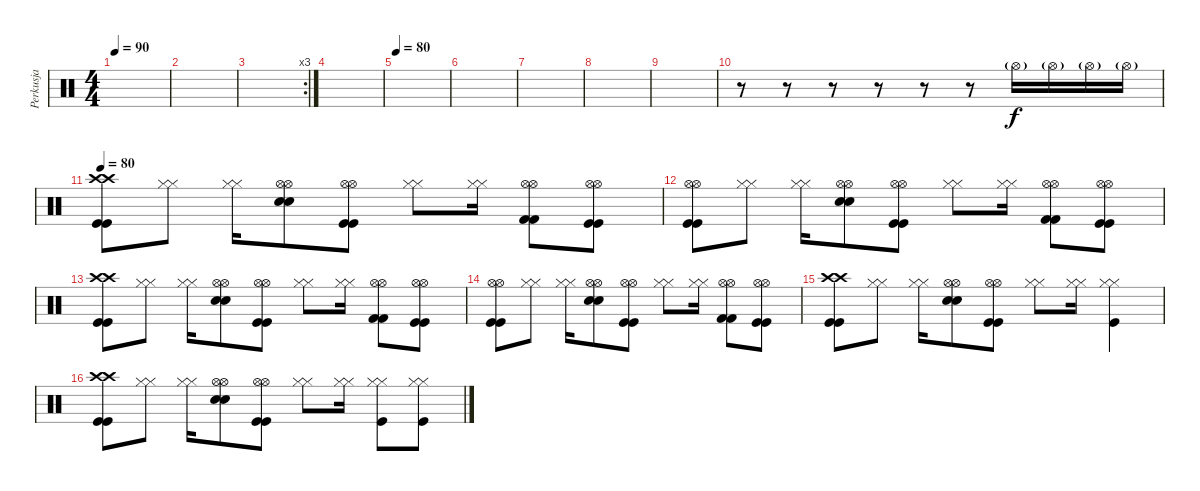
\track ("Perkusja" "Perkusja") {instrument percussion}
\staff {score}
\articulation defaults
\ts (4 4)
\tempo 90
\clef neutral
\ks c
|
|
\rc 3
|
|
\tempo 80
|
|
|
|
|
r.8 r.8 r.8 r.8 r.8 r.8 "Hi-Hat (open)"{g}.16 "Hi-Hat (open)"{g}.16 "Hi-Hat (open)"{g}.16 "Hi-Hat (open)"{g}.16 |
\tempo 80
("Crash high (hit)" "Crash high (hit)" "Kick (hit)" "Kick (hit)").8{dy f} ("Hi-Hat (closed)" "Hi-Hat (closed)").8 ("Hi-Hat (closed)" "Hi-Hat (closed)").16 ("Hi-Hat (open)" "Hi-Hat (open)" "Snare (hit) 2" "Snare (hit) 2").8 ("Hi-Hat (open)" "Hi-Hat (open)" "Kick (hit)" "Kick (hit)").8 ("Hi-Hat (closed)" "Hi-Hat (closed)").8 ("Hi-Hat (closed)" "Hi-Hat (closed)").16 ("Hi-Hat (open)" "Hi-Hat (open)" "Kick (hit) 2" "Kick (hit) 2").8 ("Hi-Hat (open)" "Hi-Hat (open)" "Kick (hit)" "Kick (hit)").8 |
("Hi-Hat (open)" "Hi-Hat (open)" "Kick (hit)" "Kick (hit)").8 ("Hi-Hat (closed)" "Hi-Hat (closed)").8 ("Hi-Hat (closed)" "Hi-Hat (closed)").16 ("Hi-Hat (open)" "Hi-Hat (open)" "Snare (hit) 2" "Snare (hit) 2").8 ("Hi-Hat (open)" "Hi-Hat (open)" "Kick (hit)" "Kick (hit)").8 ("Hi-Hat (closed)" "Hi-Hat (closed)").8 ("Hi-Hat (closed)" "Hi-Hat (closed)").16 ("Hi-Hat (open)" "Hi-Hat (open)" "Kick (hit) 2" "Kick (hit) 2").8 ("Hi-Hat (open)" "Hi-Hat (open)" "Kick (hit)" "Kick (hit)").8 |
("Crash high (hit)" "Crash high (hit)" "Kick (hit)" "Kick (hit)").8 ("Hi-Hat (closed)" "Hi-Hat (closed)").8 ("Hi-Hat (closed)" "Hi-Hat (closed)").16 ("Hi-Hat (open)" "Hi-Hat (open)" "Snare (hit) 2" "Snare (hit) 2").8 ("Hi-Hat (open)" "Hi-Hat (open)" "Kick (hit)" "Kick (hit)").8 ("Hi-Hat (closed)" "Hi-Hat (closed)").8 ("Hi-Hat (closed)" "Hi-Hat (closed)").16 ("Hi-Hat (open)" "Hi-Hat (open)" "Kick (hit) 2" "Kick (hit) 2").8 ("Hi-Hat (open)" "Hi-Hat (open)" "Kick (hit)" "Kick (hit)").8 |
("Hi-Hat (open)" "Hi-Hat (open)" "Kick (hit)" "Kick (hit)").8 ("Hi-Hat (closed)" "Hi-Hat (closed)").8 ("Hi-Hat (closed)" "Hi-Hat (closed)").16 ("Hi-Hat (open)" "Hi-Hat (open)" "Snare (hit) 2" "Snare (hit) 2").8 ("Hi-Hat (open)" "Hi-Hat (open)" "Kick (hit)" "Kick (hit)").8 ("Hi-Hat (closed)" "Hi-Hat (closed)").8 ("Hi-Hat (closed)" "Hi-Hat (closed)").16 ("Hi-Hat (open)" "Hi-Hat (open)" "Kick (hit) 2" "Kick (hit) 2").8 ("Hi-Hat (open)" "Hi-Hat (open)" "Kick (hit)" "Kick (hit)").8 |
("Crash high (hit)" "Crash high (hit)" "Kick (hit)" "Kick (hit)").8 ("Hi-Hat (closed)" "Hi-Hat (closed)").8 ("Hi-Hat (closed)" "Hi-Hat (closed)").16 ("Hi-Hat (open)" "Hi-Hat (open)" "Snare (hit) 2" "Snare (hit) 2").8 ("Hi-Hat (open)" "Hi-Hat (open)" "Kick (hit)" "Kick (hit)").8 ("Hi-Hat (closed)" "Hi-Hat (closed)").8 ("Hi-Hat (closed)" "Hi-Hat (closed)").16 ("Hi-Hat (closed)" "Hi-Hat (closed)" "Kick (hit)").4 |
("Crash high (hit)" "Crash high (hit)" "Kick (hit)" "Kick (hit)").8 ("Hi-Hat (closed)" "Hi-Hat (closed)").8 ("Hi-Hat (closed)" "Hi-Hat (closed)").16 ("Hi-Hat (open)" "Hi-Hat (open)" "Snare (hit) 2" "Snare (hit) 2").8 ("Hi-Hat (open)" "Hi-Hat (open)" "Kick (hit)" "Kick (hit)").8 ("Hi-Hat (closed)" "Hi-Hat (closed)").8 ("Hi-Hat (closed)" "Hi-Hat (closed)").16 ("Hi-Hat (closed)" "Hi-Hat (closed)" "Kick (hit)").8 ("Hi-Hat (closed)" "Hi-Hat (closed)" "Kick (hit)").8
